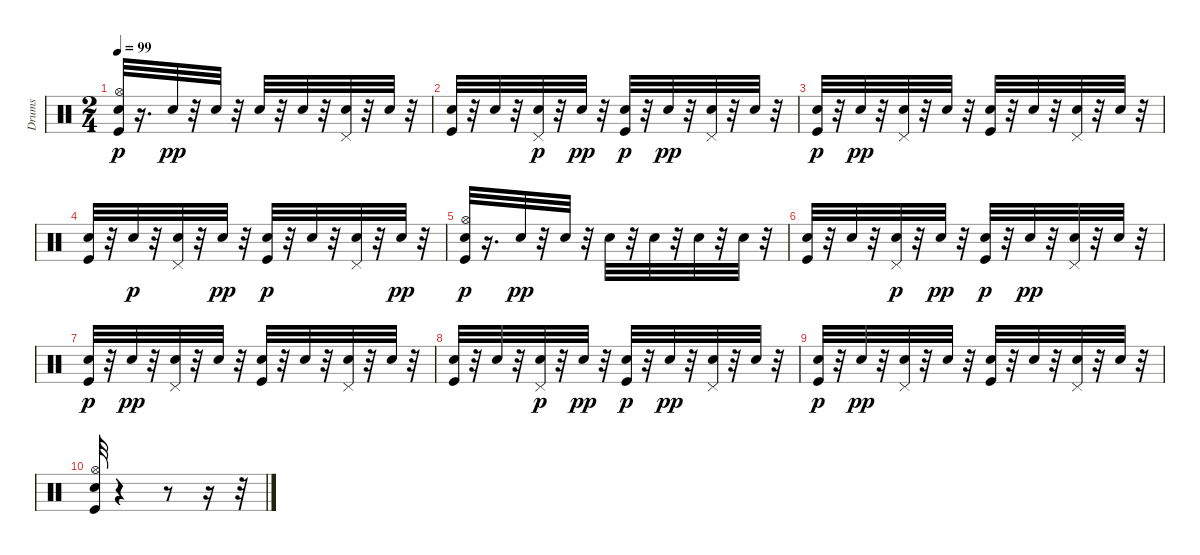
\track ("Drums" "Drums") {instrument percussion}
\staff {score}
\articulation defaults
\ts (2 4)
\tempo 99
\clef neutral
\ks c
("Hand Clap (hit)" "Hi-Hat (open)" "Kick (hit)").32{dy p} r.16{d} "Snare (hit) 2".32{dy pp} r.32 "Hand Clap (hit)".32 r.32 "Hand Clap (hit)".32 r.32 "Snare (hit) 2".32 r.32 ("Pedal Hi-Hat (hit)" "Hand Clap (hit)").32 r.32 "Hand Clap (hit)".32 r.32 |
("Kick (hit)" "Hand Clap (hit)").32 r.32 "Snare (hit) 2".32 r.32 ("Pedal Hi-Hat (hit)" "Snare (hit) 2").32{dy p} r.32 "Hand Clap (hit)".32{dy pp} r.32 ("Hand Clap (hit)" "Kick (hit)").32{dy p} r.32 "Snare (hit) 2".32{dy pp} r.32 ("Pedal Hi-Hat (hit)" "Hand Clap (hit)").32 r.32 "Snare (hit) 2".32 r.32 |
("Hand Clap (hit)" "Kick (hit)").32{dy p} r.32 "Snare (hit) 2".32{dy pp} r.32 ("Pedal Hi-Hat (hit)" "Snare (hit) 2").32 r.32 "Snare (hit) 2".32 r.32 ("Kick (hit)" "Hand Clap (hit)").32 r.32 "Snare (hit) 2".32 r.32 ("Hand Clap (hit)" "Pedal Hi-Hat (hit)").32 r.32 "Snare (hit) 2".32 r.32 |
("Kick (hit)" "Hand Clap (hit)").32 r.32 "Snare (hit) 2".32{dy p} r.32 ("Pedal Hi-Hat (hit)" "Snare (hit) 2").32 r.32 "Snare (hit) 2".32{dy pp} r.32 ("Hand Clap (hit)" "Kick (hit)").32{dy p} r.32 "Snare (hit) 2".32 r.32 ("Pedal Hi-Hat (hit)" "Snare (hit) 2").32 r.32 "Snare (hit) 2".32{dy pp} r.32 |
("Hand Clap (hit)" "Hi-Hat (open)" "Kick (hit)").32{dy p} r.16{d} "Snare (hit) 2".32{dy pp} r.32 "Hand Clap (hit)".32 r.32 "Hand Clap (hit)".32 r.32 "Snare (hit) 2".32 r.32 "Hand Clap (hit)".32 r.32 "Hand Clap (hit)".32 r.32 |
("Kick (hit)" "Hand Clap (hit)").32 r.32 "Snare (hit) 2".32 r.32 ("Pedal Hi-Hat (hit)" "Snare (hit) 2").32{dy p} r.32 "Hand Clap (hit)".32{dy pp} r.32 ("Hand Clap (hit)" "Kick (hit)").32{dy p} r.32 "Snare (hit) 2".32{dy pp} r.32 ("Pedal Hi-Hat (hit)" "Hand Clap (hit)").32 r.32 "Snare (hit) 2".32 r.32 |
("Hand Clap (hit)" "Kick (hit)").32{dy p} r.32 "Snare (hit) 2".32{dy pp} r.32 ("Pedal Hi-Hat (hit)" "Snare (hit) 2").32 r.32 "Snare (hit) 2".32 r.32 ("Kick (hit)" "Hand Clap (hit)").32 r.32 "Snare (hit) 2".32 r.32 ("Hand Clap (hit)" "Pedal Hi-Hat (hit)").32 r.32 "Snare (hit) 2".32 r.32 |
("Kick (hit)" "Hand Clap (hit)").32 r.32 "Snare (hit) 2".32 r.32 ("Pedal Hi-Hat (hit)" "Snare (hit) 2").32{dy p} r.32 "Hand Clap (hit)".32{dy pp} r.32 ("Hand Clap (hit)" "Kick (hit)").32{dy p} r.32 "Snare (hit) 2".32{dy pp} r.32 ("Pedal Hi-Hat (hit)" "Hand Clap (hit)").32 r.32 "Snare (hit) 2".32 r.32 |
("Hand Clap (hit)" "Kick (hit)").32{dy p} r.32 "Snare (hit) 2".32{dy pp} r.32 ("Pedal Hi-Hat (hit)" "Snare (hit) 2").32 r.32 "Snare (hit) 2".32 r.32 ("Kick (hit)" "Hand Clap (hit)").32 r.32 "Snare (hit) 2".32 r.32 ("Hand Clap (hit)" "Pedal Hi-Hat (hit)").32 r.32 "Snare (hit) 2".32 r.32 |
("Hi-Hat (open)" "Kick (hit)" "Hand Clap (hit)").32 r.4 r.8 r.16 r.32
